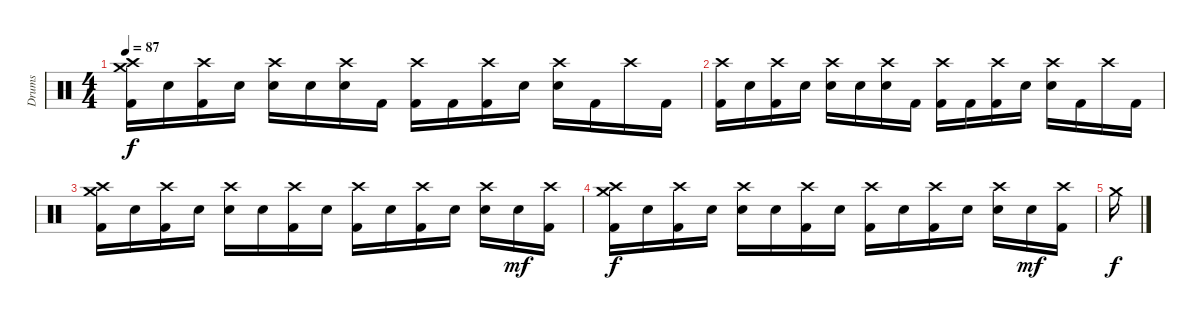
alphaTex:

\track ("Drums" "Drums") {instrument percussion}
\staff {score}
\articulation defaults
\ts (4 4)
\tempo 87
\clef neutral
\ks c
("Crash medium (hit)" "Crash high (hit)" "Kick (hit) 2").16{dy f} "Snare (hit)".16 ("Crash high (hit)" "Kick (hit) 2").16 "Snare (hit)".16 ("Crash high (hit)" "Electric Snare (hit)").16 "Snare (hit)".16 ("Crash high (hit)" "Snare (hit)").16 "Kick (hit) 2".16 ("Crash high (hit)" "Kick (hit) 2").16 "Kick (hit) 2".16 ("Crash high (hit)" "Kick (hit) 2").16 "Snare (hit)".16 ("Crash high (hit)" "Electric Snare (hit)").16 "Kick (hit) 2".16 "Crash high (hit)".16 "Kick (hit) 2".16 |
("Crash high (hit)" "Kick (hit) 2").16 "Snare (hit)".16 ("Crash high (hit)" "Kick (hit) 2").16 "Snare (hit)".16 ("Crash high (hit)" "Electric Snare (hit)").16 "Snare (hit)".16 ("Crash high (hit)" "Snare (hit)").16 "Kick (hit) 2".16 ("Crash high (hit)" "Kick (hit) 2").16 "Kick (hit) 2".16 ("Crash high (hit)" "Kick (hit) 2").16 "Snare (hit)".16 ("Crash high (hit)" "Electric Snare (hit)").16 "Kick (hit) 2".16 "Crash high (hit)".16 "Kick (hit) 2".16 |
("Crash medium (hit)" "Crash high (hit)" "Kick (hit) 2").16 "Snare (hit)".16 ("Crash high (hit)" "Kick (hit) 2").16 "Snare (hit)".16 ("Crash high (hit)" "Electric Snare (hit)").16 "Snare (hit)".16 ("Crash high (hit)" "Kick (hit) 2").16 "Snare (hit)".16 ("Crash high (hit)" "Kick (hit) 2").16 "Snare (hit)".16 ("Crash high (hit)" "Kick (hit) 2").16 "Snare (hit)".16 ("Crash high (hit)" "Electric Snare (hit)").16 "Snare (hit)".16{dy mf} ("Crash high (hit)" "Kick (hit) 2").16 |
("Crash medium (hit)" "Crash high (hit)" "Kick (hit) 2").16{dy f} "Snare (hit)".16 ("Crash high (hit)" "Kick (hit) 2").16 "Snare (hit)".16 ("Crash high (hit)" "Electric Snare (hit)").16 "Snare (hit)".16 ("Crash high (hit)" "Kick (hit) 2").16 "Snare (hit)".16 ("Crash high (hit)" "Kick (hit) 2").16 "Snare (hit)".16 ("Crash high (hit)" "Kick (hit) 2").16 "Snare (hit)".16 ("Crash high (hit)" "Electric Snare (hit)").16 "Snare (hit)".16{dy mf} ("Crash high (hit)" "Kick (hit) 2").16 |
"Crash medium (hit)".16{dy f}
